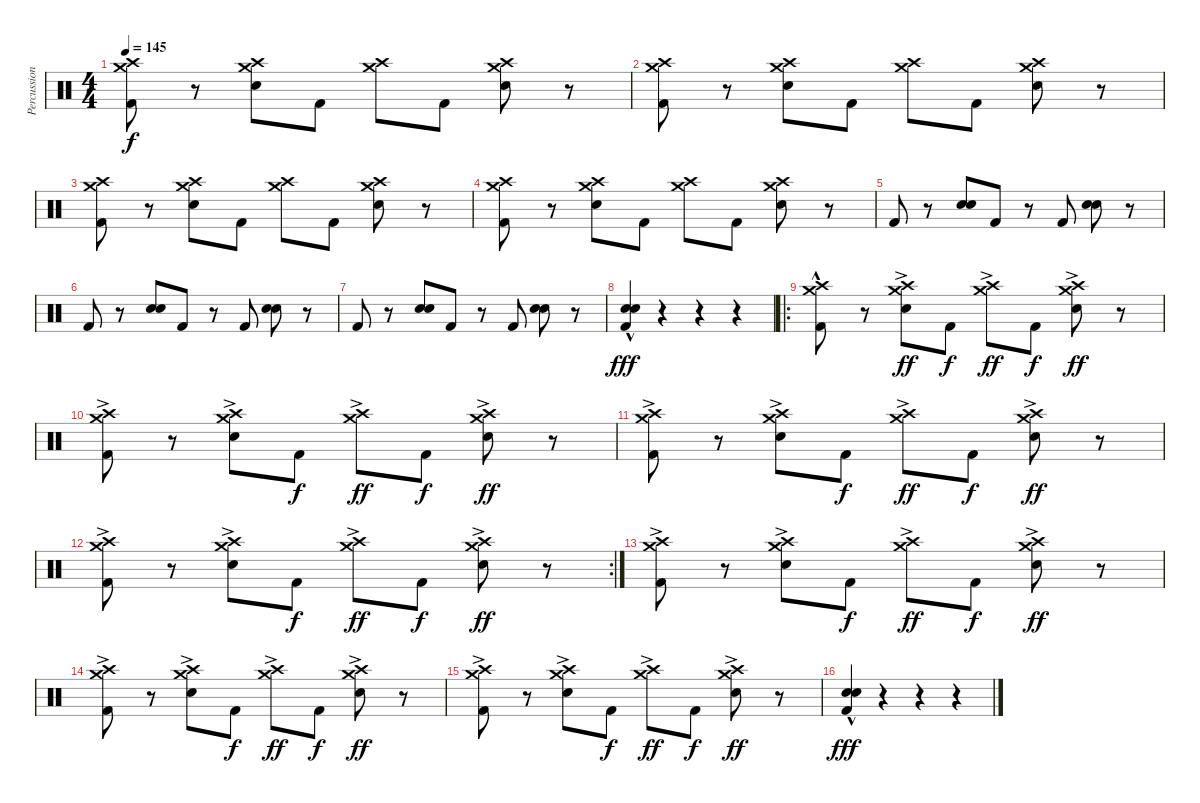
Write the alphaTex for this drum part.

\track ("Percussion" "Percussion") {instrument percussion}
\staff {score}
\articulation defaults
\ts (4 4)
\tempo 145
\clef neutral
\ks c
("Crash high (hit)" "Crash medium (hit)" "Kick (hit) 2").8{dy f} r.8 ("Crash high (hit)" "Crash medium (hit)" "Electric Snare (hit)").8 "Kick (hit) 2".8 ("Crash high (hit)" "Crash medium (hit)").8 "Kick (hit) 2".8 ("Crash high (hit)" "Crash medium (hit)" "Electric Snare (hit)").8 r.8 |
("Crash high (hit)" "Crash medium (hit)" "Kick (hit) 2").8 r.8 ("Crash high (hit)" "Crash medium (hit)" "Electric Snare (hit)").8 "Kick (hit) 2".8 ("Crash high (hit)" "Crash medium (hit)").8 "Kick (hit) 2".8 ("Crash high (hit)" "Crash medium (hit)" "Electric Snare (hit)").8 r.8 |
("Crash high (hit)" "Crash medium (hit)" "Kick (hit) 2").8 r.8 ("Crash high (hit)" "Crash medium (hit)" "Electric Snare (hit)").8 "Kick (hit) 2".8 ("Crash high (hit)" "Crash medium (hit)").8 "Kick (hit) 2".8 ("Crash high (hit)" "Crash medium (hit)" "Electric Snare (hit)").8 r.8 |
("Crash high (hit)" "Crash medium (hit)" "Kick (hit) 2").8 r.8 ("Crash high (hit)" "Crash medium (hit)" "Electric Snare (hit)").8 "Kick (hit) 2".8 ("Crash high (hit)" "Crash medium (hit)").8 "Kick (hit) 2".8 ("Crash high (hit)" "Crash medium (hit)" "Electric Snare (hit)").8 r.8 |
"Kick (hit) 2".8 r.8 ("Snare (hit) 2" "Electric Snare (hit)").8 "Kick (hit) 2".8 r.8 "Kick (hit) 2".8 ("Snare (hit) 2" "Electric Snare (hit)").8 r.8 |
"Kick (hit) 2".8 r.8 ("Snare (hit) 2" "Electric Snare (hit)").8 "Kick (hit) 2".8 r.8 "Kick (hit) 2".8 ("Snare (hit) 2" "Electric Snare (hit)").8 r.8 |
"Kick (hit) 2".8 r.8 ("Snare (hit) 2" "Electric Snare (hit)").8 "Kick (hit) 2".8 r.8 "Kick (hit) 2".8 ("Snare (hit) 2" "Electric Snare (hit)").8 r.8 |
("Snare (hit) 2" "Kick (hit) 2" "Electric Snare (hit)"{hac}).4{dy fff} r.4 r.4 r.4 |
\ro
("Crash high (hit)"{hac} "Crash medium (hit)"{hac} "Kick (hit) 2"{hac}).8 r.8 ("Crash high (hit)"{ac} "Crash medium (hit)"{ac} "Electric Snare (hit)").8{dy ff} "Kick (hit) 2".8{dy f} ("Crash high (hit)"{ac} "Crash medium (hit)"{ac}).8{dy ff} "Kick (hit) 2".8{dy f} ("Crash high (hit)"{ac} "Crash medium (hit)"{ac} "Electric Snare (hit)").8{dy ff} r.8 |
("Crash high (hit)"{ac} "Crash medium (hit)"{ac} "Kick (hit) 2").8 r.8 ("Crash high (hit)"{ac} "Crash medium (hit)"{ac} "Electric Snare (hit)").8 "Kick (hit) 2".8{dy f} ("Crash high (hit)"{ac} "Crash medium (hit)"{ac}).8{dy ff} "Kick (hit) 2".8{dy f} ("Crash high (hit)"{ac} "Crash medium (hit)"{ac} "Electric Snare (hit)").8{dy ff} r.8 |
("Crash high (hit)"{ac} "Crash medium (hit)"{ac} "Kick (hit) 2").8 r.8 ("Crash high (hit)"{ac} "Crash medium (hit)"{ac} "Electric Snare (hit)").8 "Kick (hit) 2".8{dy f} ("Crash high (hit)"{ac} "Crash medium (hit)"{ac}).8{dy ff} "Kick (hit) 2".8{dy f} ("Crash high (hit)"{ac} "Crash medium (hit)"{ac} "Electric Snare (hit)").8{dy ff} r.8 |
\rc 2
("Crash high (hit)"{ac} "Crash medium (hit)"{ac} "Kick (hit) 2").8 r.8 ("Crash high (hit)"{ac} "Crash medium (hit)"{ac} "Electric Snare (hit)").8 "Kick (hit) 2".8{dy f} ("Crash high (hit)"{ac} "Crash medium (hit)"{ac}).8{dy ff} "Kick (hit) 2".8{dy f} ("Crash high (hit)"{ac} "Crash medium (hit)"{ac} "Electric Snare (hit)").8{dy ff} r.8 |
("Crash high (hit)"{ac} "Crash medium (hit)"{ac} "Kick (hit) 2").8 r.8 ("Crash high (hit)"{ac} "Crash medium (hit)"{ac} "Electric Snare (hit)").8 "Kick (hit) 2".8{dy f} ("Crash high (hit)"{ac} "Crash medium (hit)"{ac}).8{dy ff} "Kick (hit) 2".8{dy f} ("Crash high (hit)"{ac} "Crash medium (hit)"{ac} "Electric Snare (hit)").8{dy ff} r.8 |
("Crash high (hit)"{ac} "Crash medium (hit)"{ac} "Kick (hit) 2").8 r.8 ("Crash high (hit)"{ac} "Crash medium (hit)"{ac} "Electric Snare (hit)").8 "Kick (hit) 2".8{dy f} ("Crash high (hit)"{ac} "Crash medium (hit)"{ac}).8{dy ff} "Kick (hit) 2".8{dy f} ("Crash high (hit)"{ac} "Crash medium (hit)"{ac} "Electric Snare (hit)").8{dy ff} r.8 |
("Crash high (hit)"{ac} "Crash medium (hit)"{ac} "Kick (hit) 2").8 r.8 ("Crash high (hit)"{ac} "Crash medium (hit)"{ac} "Electric Snare (hit)").8 "Kick (hit) 2".8{dy f} ("Crash high (hit)"{ac} "Crash medium (hit)"{ac}).8{dy ff} "Kick (hit) 2".8{dy f} ("Crash high (hit)"{ac} "Crash medium (hit)"{ac} "Electric Snare (hit)").8{dy ff} r.8 |
("Snare (hit) 2" "Kick (hit) 2" "Electric Snare (hit)"{hac}).4{dy fff} r.4 r.4 r.4
